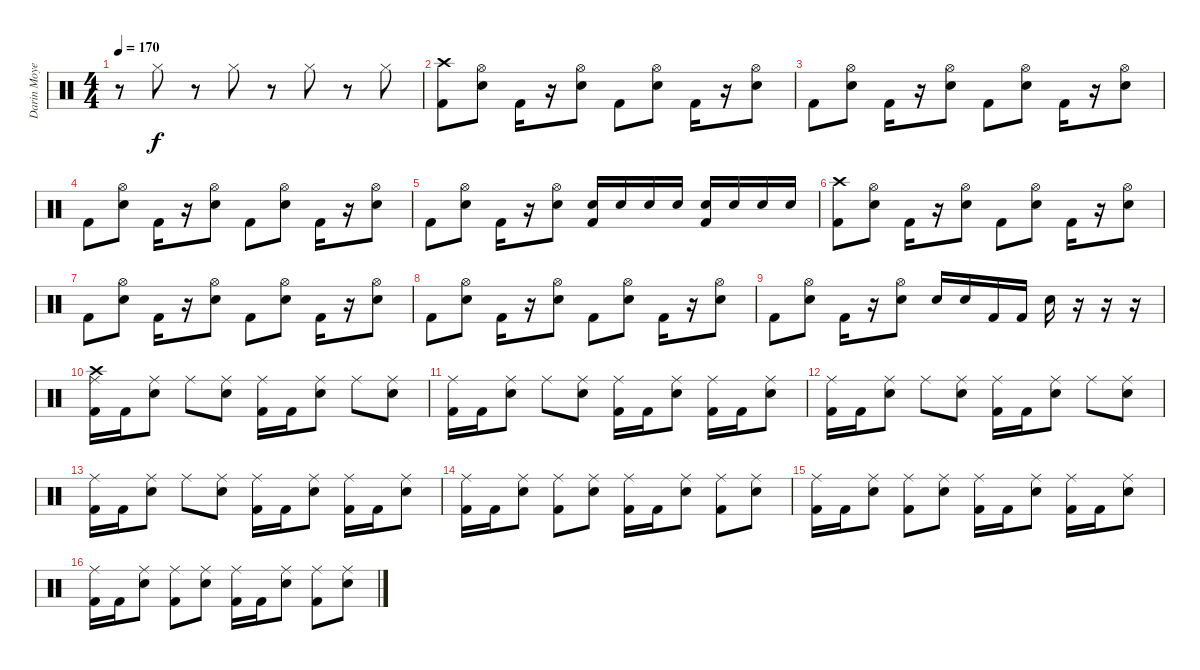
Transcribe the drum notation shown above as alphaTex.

\track ("Darin Moyen" "Darin Moye") {instrument percussion}
\staff {score}
\articulation defaults
\ts (4 4)
\tempo 170
\clef neutral
\ks c
r.8{dy f} "Hi-Hat (closed)".8 r.8 "Hi-Hat (closed)".8 r.8 "Hi-Hat (closed)".8 r.8 "Hi-Hat (closed)".8 |
("Crash high (hit)" "Kick (hit) 2").8 ("Hi-Hat (open)" "Electric Snare (hit)").8 "Kick (hit) 2".16 r.16 ("Hi-Hat (open)" "Electric Snare (hit)").8 "Kick (hit) 2".8 ("Hi-Hat (open)" "Electric Snare (hit)").8 "Kick (hit) 2".16 r.16 ("Hi-Hat (open)" "Electric Snare (hit)").8 |
"Kick (hit) 2".8 ("Hi-Hat (open)" "Electric Snare (hit)").8 "Kick (hit) 2".16 r.16 ("Hi-Hat (open)" "Electric Snare (hit)").8 "Kick (hit) 2".8 ("Hi-Hat (open)" "Electric Snare (hit)").8 "Kick (hit) 2".16 r.16 ("Hi-Hat (open)" "Electric Snare (hit)").8 |
"Kick (hit) 2".8 ("Hi-Hat (open)" "Electric Snare (hit)").8 "Kick (hit) 2".16 r.16 ("Hi-Hat (open)" "Electric Snare (hit)").8 "Kick (hit) 2".8 ("Hi-Hat (open)" "Electric Snare (hit)").8 "Kick (hit) 2".16 r.16 ("Hi-Hat (open)" "Electric Snare (hit)").8 |
"Kick (hit) 2".8 ("Hi-Hat (open)" "Electric Snare (hit)").8 "Kick (hit) 2".16 r.16 ("Hi-Hat (open)" "Electric Snare (hit)").8 ("Electric Snare (hit)" "Kick (hit) 2").16 "Electric Snare (hit)".16 "Electric Snare (hit)".16 "Electric Snare (hit)".16 ("Electric Snare (hit)" "Kick (hit) 2").16 "Electric Snare (hit)".16 "Electric Snare (hit)".16 "Electric Snare (hit)".16 |
("Crash high (hit)" "Kick (hit) 2").8 ("Hi-Hat (open)" "Electric Snare (hit)").8 "Kick (hit) 2".16 r.16 ("Hi-Hat (open)" "Electric Snare (hit)").8 "Kick (hit) 2".8 ("Hi-Hat (open)" "Electric Snare (hit)").8 "Kick (hit) 2".16 r.16 ("Hi-Hat (open)" "Electric Snare (hit)").8 |
"Kick (hit) 2".8 ("Hi-Hat (open)" "Electric Snare (hit)").8 "Kick (hit) 2".16 r.16 ("Hi-Hat (open)" "Electric Snare (hit)").8 "Kick (hit) 2".8 ("Hi-Hat (open)" "Electric Snare (hit)").8 "Kick (hit) 2".16 r.16 ("Hi-Hat (open)" "Electric Snare (hit)").8 |
"Kick (hit) 2".8 ("Hi-Hat (open)" "Electric Snare (hit)").8 "Kick (hit) 2".16 r.16 ("Hi-Hat (open)" "Electric Snare (hit)").8 "Kick (hit) 2".8 ("Hi-Hat (open)" "Electric Snare (hit)").8 "Kick (hit) 2".16 r.16 ("Hi-Hat (open)" "Electric Snare (hit)").8 |
"Kick (hit) 2".8 ("Hi-Hat (open)" "Electric Snare (hit)").8 "Kick (hit) 2".16 r.16 ("Hi-Hat (open)" "Electric Snare (hit)").8 "Electric Snare (hit)".16 "Electric Snare (hit)".16 "Kick (hit) 2".16 "Kick (hit) 2".16 "Electric Snare (hit)".16 r.16 r.16 r.16 |
("Crash high (hit)" "Ride (middle)" "Kick (hit) 2").16 "Kick (hit) 2".16 ("Ride (middle)" "Electric Snare (hit)").8 "Ride (middle)".8 ("Ride (middle)" "Electric Snare (hit)").8 ("Ride (middle)" "Kick (hit) 2").16 "Kick (hit) 2".16 ("Ride (middle)" "Electric Snare (hit)").8 "Ride (middle)".8 ("Ride (middle)" "Electric Snare (hit)").8 |
("Ride (middle)" "Kick (hit) 2").16 "Kick (hit) 2".16 ("Ride (middle)" "Electric Snare (hit)").8 "Ride (middle)".8 ("Ride (middle)" "Electric Snare (hit)").8 ("Ride (middle)" "Kick (hit) 2").16 "Kick (hit) 2".16 ("Ride (middle)" "Electric Snare (hit)").8 ("Ride (middle)" "Kick (hit) 2").16 "Kick (hit) 2".16 ("Ride (middle)" "Electric Snare (hit)").8 |
("Ride (middle)" "Kick (hit) 2").16 "Kick (hit) 2".16 ("Ride (middle)" "Electric Snare (hit)").8 "Ride (middle)".8 ("Ride (middle)" "Electric Snare (hit)").8 ("Ride (middle)" "Kick (hit) 2").16 "Kick (hit) 2".16 ("Ride (middle)" "Electric Snare (hit)").8 "Ride (middle)".8 ("Ride (middle)" "Electric Snare (hit)").8 |
("Ride (middle)" "Kick (hit) 2").16 "Kick (hit) 2".16 ("Ride (middle)" "Electric Snare (hit)").8 "Ride (middle)".8 ("Ride (middle)" "Electric Snare (hit)").8 ("Ride (middle)" "Kick (hit) 2").16 "Kick (hit) 2".16 ("Ride (middle)" "Electric Snare (hit)").8 ("Ride (middle)" "Kick (hit) 2").16 "Kick (hit) 2".16 ("Ride (middle)" "Electric Snare (hit)").8 |
("Ride (middle)" "Kick (hit) 2").16 "Kick (hit) 2".16 ("Ride (middle)" "Electric Snare (hit)").8 ("Ride (middle)" "Kick (hit) 2").8 ("Ride (middle)" "Electric Snare (hit)").8 ("Ride (middle)" "Kick (hit) 2").16 "Kick (hit) 2".16 ("Ride (middle)" "Electric Snare (hit)").8 ("Ride (middle)" "Kick (hit) 2").8 ("Ride (middle)" "Electric Snare (hit)").8 |
("Ride (middle)" "Kick (hit) 2").16 "Kick (hit) 2".16 ("Ride (middle)" "Electric Snare (hit)").8 ("Ride (middle)" "Kick (hit) 2").8 ("Ride (middle)" "Electric Snare (hit)").8 ("Ride (middle)" "Kick (hit) 2").16 "Kick (hit) 2".16 ("Ride (middle)" "Electric Snare (hit)").8 ("Ride (middle)" "Kick (hit) 2").16 "Kick (hit) 2".16 ("Ride (middle)" "Electric Snare (hit)").8 |
("Ride (middle)" "Kick (hit) 2").16 "Kick (hit) 2".16 ("Ride (middle)" "Electric Snare (hit)").8 ("Ride (middle)" "Kick (hit) 2").8 ("Ride (middle)" "Electric Snare (hit)").8 ("Ride (middle)" "Kick (hit) 2").16 "Kick (hit) 2".16 ("Ride (middle)" "Electric Snare (hit)").8 ("Ride (middle)" "Kick (hit) 2").8 ("Ride (middle)" "Electric Snare (hit)").8
